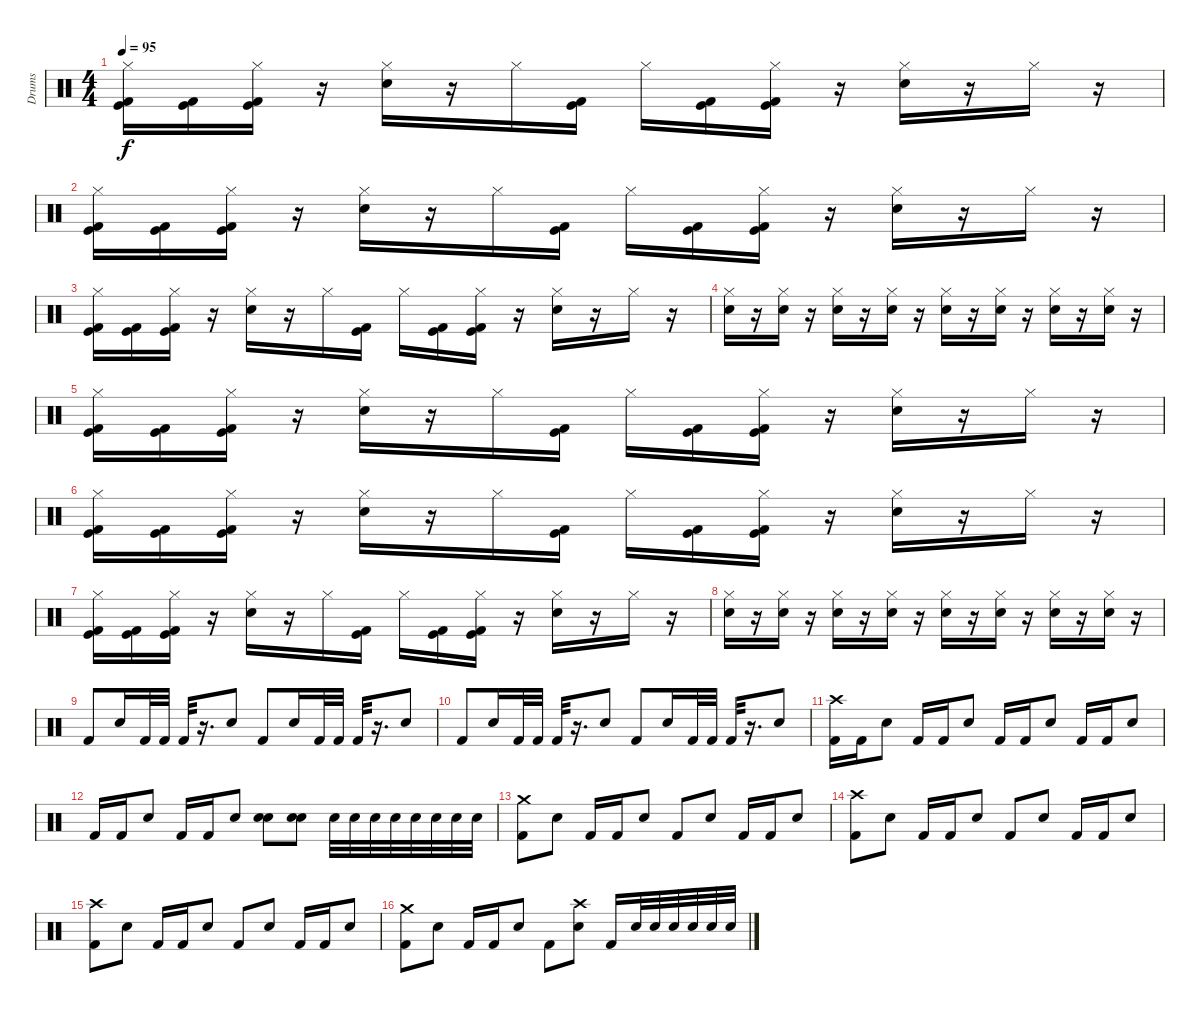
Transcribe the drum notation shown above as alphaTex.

\track ("Drums" "Drums") {instrument percussion}
\staff {score}
\articulation defaults
\ts (4 4)
\tempo 95
\clef neutral
\ks c
("Hi-Hat (closed)" "Kick (hit)" "Kick (hit) 2").16{dy f} ("Kick (hit)" "Kick (hit) 2").16 ("Hi-Hat (closed)" "Kick (hit)" "Kick (hit) 2").16 r.16 ("Hi-Hat (closed)" "Electric Snare (hit)").16 r.16 "Hi-Hat (closed)".16 ("Kick (hit)" "Kick (hit) 2").16 "Hi-Hat (closed)".16 ("Kick (hit)" "Kick (hit) 2").16 ("Hi-Hat (closed)" "Kick (hit)" "Kick (hit) 2").16 r.16 ("Hi-Hat (closed)" "Electric Snare (hit)").16 r.16 "Hi-Hat (closed)".16 r.16 |
("Hi-Hat (closed)" "Kick (hit)" "Kick (hit) 2").16 ("Kick (hit)" "Kick (hit) 2").16 ("Hi-Hat (closed)" "Kick (hit)" "Kick (hit) 2").16 r.16 ("Hi-Hat (closed)" "Electric Snare (hit)").16 r.16 "Hi-Hat (closed)".16 ("Kick (hit)" "Kick (hit) 2").16 "Hi-Hat (closed)".16 ("Kick (hit)" "Kick (hit) 2").16 ("Hi-Hat (closed)" "Kick (hit)" "Kick (hit) 2").16 r.16 ("Hi-Hat (closed)" "Electric Snare (hit)").16 r.16 "Hi-Hat (closed)".16 r.16 |
("Hi-Hat (closed)" "Kick (hit)" "Kick (hit) 2").16 ("Kick (hit)" "Kick (hit) 2").16 ("Hi-Hat (closed)" "Kick (hit)" "Kick (hit) 2").16 r.16 ("Hi-Hat (closed)" "Electric Snare (hit)").16 r.16 "Hi-Hat (closed)".16 ("Kick (hit)" "Kick (hit) 2").16 "Hi-Hat (closed)".16 ("Kick (hit)" "Kick (hit) 2").16 ("Hi-Hat (closed)" "Kick (hit)" "Kick (hit) 2").16 r.16 ("Hi-Hat (closed)" "Electric Snare (hit)").16 r.16 "Hi-Hat (closed)".16 r.16 |
("Electric Snare (hit)" "Hi-Hat (closed)").16 r.16 ("Electric Snare (hit)" "Hi-Hat (closed)").16 r.16 ("Electric Snare (hit)" "Hi-Hat (closed)").16 r.16 ("Electric Snare (hit)" "Hi-Hat (closed)").16 r.16 ("Electric Snare (hit)" "Hi-Hat (closed)").16 r.16 ("Electric Snare (hit)" "Hi-Hat (closed)").16 r.16 ("Snare (hit) 2" "Hi-Hat (closed)").16 r.16 ("Snare (hit) 2" "Hi-Hat (closed)").16 r.16 |
("Hi-Hat (closed)" "Kick (hit)" "Kick (hit) 2").16 ("Kick (hit)" "Kick (hit) 2").16 ("Hi-Hat (closed)" "Kick (hit)" "Kick (hit) 2").16 r.16 ("Hi-Hat (closed)" "Electric Snare (hit)").16 r.16 "Hi-Hat (closed)".16 ("Kick (hit)" "Kick (hit) 2").16 "Hi-Hat (closed)".16 ("Kick (hit)" "Kick (hit) 2").16 ("Hi-Hat (closed)" "Kick (hit)" "Kick (hit) 2").16 r.16 ("Hi-Hat (closed)" "Electric Snare (hit)").16 r.16 "Hi-Hat (closed)".16 r.16 |
("Hi-Hat (closed)" "Kick (hit)" "Kick (hit) 2").16 ("Kick (hit)" "Kick (hit) 2").16 ("Hi-Hat (closed)" "Kick (hit)" "Kick (hit) 2").16 r.16 ("Hi-Hat (closed)" "Electric Snare (hit)").16 r.16 "Hi-Hat (closed)".16 ("Kick (hit)" "Kick (hit) 2").16 "Hi-Hat (closed)".16 ("Kick (hit)" "Kick (hit) 2").16 ("Hi-Hat (closed)" "Kick (hit)" "Kick (hit) 2").16 r.16 ("Hi-Hat (closed)" "Electric Snare (hit)").16 r.16 "Hi-Hat (closed)".16 r.16 |
("Hi-Hat (closed)" "Kick (hit)" "Kick (hit) 2").16 ("Kick (hit)" "Kick (hit) 2").16 ("Hi-Hat (closed)" "Kick (hit)" "Kick (hit) 2").16 r.16 ("Hi-Hat (closed)" "Electric Snare (hit)").16 r.16 "Hi-Hat (closed)".16 ("Kick (hit)" "Kick (hit) 2").16 "Hi-Hat (closed)".16 ("Kick (hit)" "Kick (hit) 2").16 ("Hi-Hat (closed)" "Kick (hit)" "Kick (hit) 2").16 r.16 ("Hi-Hat (closed)" "Electric Snare (hit)").16 r.16 "Hi-Hat (closed)".16 r.16 |
("Electric Snare (hit)" "Hi-Hat (closed)").16 r.16 ("Electric Snare (hit)" "Hi-Hat (closed)").16 r.16 ("Electric Snare (hit)" "Hi-Hat (closed)").16 r.16 ("Electric Snare (hit)" "Hi-Hat (closed)").16 r.16 ("Electric Snare (hit)" "Hi-Hat (closed)").16 r.16 ("Electric Snare (hit)" "Hi-Hat (closed)").16 r.16 ("Snare (hit) 2" "Hi-Hat (closed)").16 r.16 ("Snare (hit) 2" "Hi-Hat (closed)").16 r.16 |
"Kick (hit) 2".8 "Electric Snare (hit)".16 "Kick (hit) 2".32 "Kick (hit) 2".32 "Kick (hit) 2".32 r.16{d} "Electric Snare (hit)".8 "Kick (hit) 2".8 "Electric Snare (hit)".16 "Kick (hit) 2".32 "Kick (hit) 2".32 "Kick (hit) 2".32 r.16{d} "Electric Snare (hit)".8 |
"Kick (hit) 2".8 "Electric Snare (hit)".16 "Kick (hit) 2".32 "Kick (hit) 2".32 "Kick (hit) 2".32 r.16{d} "Electric Snare (hit)".8 "Kick (hit) 2".8 "Electric Snare (hit)".16 "Kick (hit) 2".32 "Kick (hit) 2".32 "Kick (hit) 2".32 r.16{d} "Electric Snare (hit)".8 |
("Crash high (hit)" "Kick (hit) 2").16 "Kick (hit) 2".16 "Electric Snare (hit)".8 "Kick (hit) 2".16 "Kick (hit) 2".16 "Electric Snare (hit)".8 "Kick (hit) 2".16 "Kick (hit) 2".16 "Electric Snare (hit)".8 "Kick (hit) 2".16 "Kick (hit) 2".16 "Electric Snare (hit)".8 |
"Kick (hit) 2".16 "Kick (hit) 2".16 "Electric Snare (hit)".8 "Kick (hit) 2".16 "Kick (hit) 2".16 "Electric Snare (hit)".8 ("Snare (hit) 2" "Electric Snare (hit)").8 ("Snare (hit) 2" "Electric Snare (hit)").8 "Electric Snare (hit)".32 "Electric Snare (hit)".32 "Electric Snare (hit)".32 "Electric Snare (hit)".32 "Electric Snare (hit)".32 "Electric Snare (hit)".32 "Electric Snare (hit)".32 "Electric Snare (hit)".32 |
("Crash medium (hit)" "Kick (hit) 2").8 "Electric Snare (hit)".8 "Kick (hit) 2".16 "Kick (hit) 2".16 "Electric Snare (hit)".8 "Kick (hit) 2".8 "Electric Snare (hit)".8 "Kick (hit) 2".16 "Kick (hit) 2".16 "Electric Snare (hit)".8 |
("Crash high (hit)" "Kick (hit) 2").8 "Electric Snare (hit)".8 "Kick (hit) 2".16 "Kick (hit) 2".16 "Electric Snare (hit)".8 "Kick (hit) 2".8 "Electric Snare (hit)".8 "Kick (hit) 2".16 "Kick (hit) 2".16 "Electric Snare (hit)".8 |
("Crash high (hit)" "Kick (hit) 2").8 "Electric Snare (hit)".8 "Kick (hit) 2".16 "Kick (hit) 2".16 "Electric Snare (hit)".8 "Kick (hit) 2".8 "Electric Snare (hit)".8 "Kick (hit) 2".16 "Kick (hit) 2".16 "Electric Snare (hit)".8 |
("Crash medium (hit)" "Kick (hit) 2").8 "Electric Snare (hit)".8 "Kick (hit) 2".16 "Kick (hit) 2".16 "Electric Snare (hit)".8 "Kick (hit) 2".8 ("Crash high (hit)" "Electric Snare (hit)").8 "Kick (hit) 2".16 "Electric Snare (hit)".32 "Electric Snare (hit)".32 "Electric Snare (hit)".32 "Electric Snare (hit)".32 "Electric Snare (hit)".32 "Electric Snare (hit)".32
